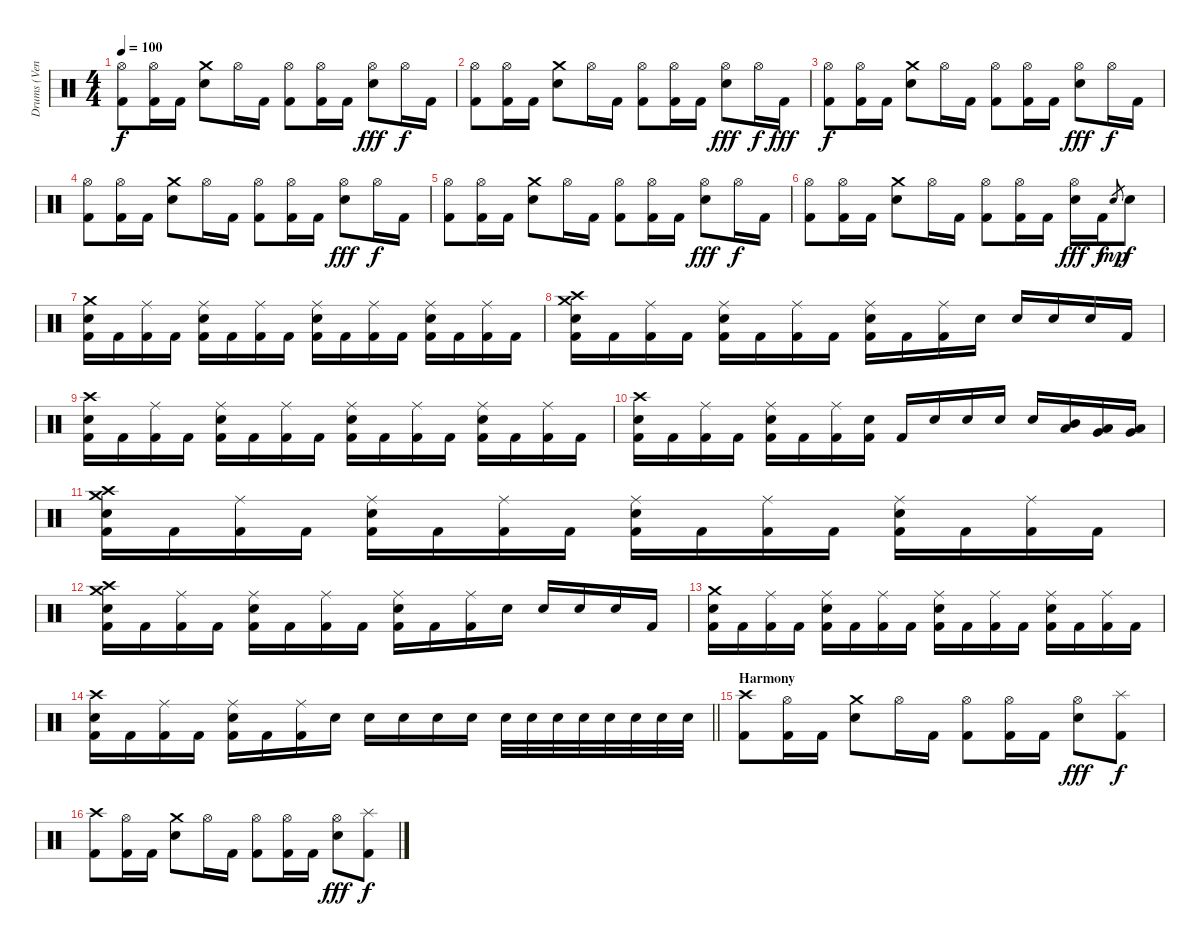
\track ("Drums (Ventor)" "Drums (Ven") {instrument percussion}
\staff {score}
\articulation defaults
\ts (4 4)
\tempo 100
\clef neutral
\ks c
("Hi-Hat (open)" "Kick (hit) 2").8{dy f} ("Hi-Hat (open)" "Kick (hit) 2").16 "Kick (hit) 2".16 ("Electric Snare (hit)" "Crash medium (hit)").8 "Hi-Hat (open)".16 "Kick (hit) 2".16 ("Hi-Hat (open)" "Kick (hit) 2").8 ("Hi-Hat (open)" "Kick (hit) 2").16 "Kick (hit) 2".16 ("Electric Snare (hit)" "Hi-Hat (open)").8{dy fff} "Hi-Hat (open)".16{dy f} "Kick (hit) 2".16 |
("Hi-Hat (open)" "Kick (hit) 2").8 ("Hi-Hat (open)" "Kick (hit) 2").16 "Kick (hit) 2".16 ("Electric Snare (hit)" "Crash medium (hit)").8 "Hi-Hat (open)".16 "Kick (hit) 2".16 ("Hi-Hat (open)" "Kick (hit) 2").8 ("Hi-Hat (open)" "Kick (hit) 2").16 "Kick (hit) 2".16 ("Electric Snare (hit)" "Hi-Hat (open)").8{dy fff} "Hi-Hat (open)".16{dy f} "Kick (hit) 2".16{dy fff} |
("Hi-Hat (open)" "Kick (hit) 2").8{dy f} ("Hi-Hat (open)" "Kick (hit) 2").16 "Kick (hit) 2".16 ("Electric Snare (hit)" "Crash medium (hit)").8 "Hi-Hat (open)".16 "Kick (hit) 2".16 ("Hi-Hat (open)" "Kick (hit) 2").8 ("Hi-Hat (open)" "Kick (hit) 2").16 "Kick (hit) 2".16 ("Electric Snare (hit)" "Hi-Hat (open)").8{dy fff} "Hi-Hat (open)".16{dy f} "Kick (hit) 2".16 |
("Hi-Hat (open)" "Kick (hit) 2").8 ("Hi-Hat (open)" "Kick (hit) 2").16 "Kick (hit) 2".16 ("Electric Snare (hit)" "Crash medium (hit)").8 "Hi-Hat (open)".16 "Kick (hit) 2".16 ("Hi-Hat (open)" "Kick (hit) 2").8 ("Hi-Hat (open)" "Kick (hit) 2").16 "Kick (hit) 2".16 ("Electric Snare (hit)" "Hi-Hat (open)").8{dy fff} "Hi-Hat (open)".16{dy f} "Kick (hit) 2".16 |
("Hi-Hat (open)" "Kick (hit) 2").8 ("Hi-Hat (open)" "Kick (hit) 2").16 "Kick (hit) 2".16 ("Electric Snare (hit)" "Crash medium (hit)").8 "Hi-Hat (open)".16 "Kick (hit) 2".16 ("Hi-Hat (open)" "Kick (hit) 2").8 ("Hi-Hat (open)" "Kick (hit) 2").16 "Kick (hit) 2".16 ("Electric Snare (hit)" "Hi-Hat (open)").8{dy fff} "Hi-Hat (open)".16{dy f} "Kick (hit) 2".16 |
("Hi-Hat (open)" "Kick (hit) 2").8 ("Hi-Hat (open)" "Kick (hit) 2").16 "Kick (hit) 2".16 ("Electric Snare (hit)" "Crash medium (hit)").8 "Hi-Hat (open)".16 "Kick (hit) 2".16 ("Hi-Hat (open)" "Kick (hit) 2").8 ("Hi-Hat (open)" "Kick (hit) 2").16 "Kick (hit) 2".16 ("Electric Snare (hit)" "Hi-Hat (open)").16{dy fff} "Kick (hit) 2".16{dy f} "Electric Snare (hit)".8{gr dy mp} "Electric Snare (hit)".8{dy f} |
("Electric Snare (hit)" "Crash medium (hit)" "Kick (hit) 2").16 "Kick (hit) 2".16 ("Ride (middle)" "Kick (hit) 2").16 "Kick (hit) 2".16 ("Electric Snare (hit)" "Ride (middle)" "Kick (hit) 2").16 "Kick (hit) 2".16 ("Ride (middle)" "Kick (hit) 2").16 "Kick (hit) 2".16 ("Electric Snare (hit)" "Ride (middle)" "Kick (hit) 2").16 "Kick (hit) 2".16 ("Ride (middle)" "Kick (hit) 2").16 "Kick (hit) 2".16 ("Electric Snare (hit)" "Ride (middle)" "Kick (hit) 2").16 "Kick (hit) 2".16 ("Ride (middle)" "Kick (hit) 2").16 "Kick (hit) 2".16 |
("Electric Snare (hit)" "Crash medium (hit)" "Crash high (hit)" "Kick (hit) 2").16 "Kick (hit) 2".16 ("Ride (middle)" "Kick (hit) 2").16 "Kick (hit) 2".16 ("Electric Snare (hit)" "Ride (middle)" "Kick (hit) 2").16 "Kick (hit) 2".16 ("Ride (middle)" "Kick (hit) 2").16 "Kick (hit) 2".16 ("Electric Snare (hit)" "Ride (middle)" "Kick (hit) 2").16 "Kick (hit) 2".16 ("Ride (middle)" "Kick (hit) 2").16 "Electric Snare (hit)".16 "Electric Snare (hit)".16 "Electric Snare (hit)".16 "Electric Snare (hit)".16 "Kick (hit) 2".16 |
("Electric Snare (hit)" "Crash high (hit)" "Kick (hit) 2").16 "Kick (hit) 2".16 ("Ride (middle)" "Kick (hit) 2").16 "Kick (hit) 2".16 ("Electric Snare (hit)" "Ride (middle)" "Kick (hit) 2").16 "Kick (hit) 2".16 ("Ride (middle)" "Kick (hit) 2").16 "Kick (hit) 2".16 ("Electric Snare (hit)" "Ride (middle)" "Kick (hit) 2").16 "Kick (hit) 2".16 ("Ride (middle)" "Kick (hit) 2").16 "Kick (hit) 2".16 ("Electric Snare (hit)" "Ride (middle)" "Kick (hit) 2").16 "Kick (hit) 2".16 ("Ride (middle)" "Kick (hit) 2").16 "Kick (hit) 2".16 |
("Electric Snare (hit)" "Crash high (hit)" "Kick (hit) 2").16 "Kick (hit) 2".16 ("Ride (middle)" "Kick (hit) 2").16 "Kick (hit) 2".16 ("Electric Snare (hit)" "Ride (middle)" "Kick (hit) 2").16 "Kick (hit) 2".16 ("Ride (middle)" "Kick (hit) 2").16 ("Electric Snare (hit)" "Kick (hit) 2").16 "Kick (hit) 2".16 "Electric Snare (hit)".16 "Electric Snare (hit)".16 "Electric Snare (hit)".16 "Electric Snare (hit)".16 ("Low Tom (hit)" "Mid Tom (hit)").16 ("Very Low Tom (hit)" "Low Tom (hit)").16 ("Low Floor Tom (hit)" "Very Low Tom (hit)").16 |
("Electric Snare (hit)" "Crash medium (hit)" "Crash high (hit)" "Kick (hit) 2").16 "Kick (hit) 2".16 ("Ride (middle)" "Kick (hit) 2").16 "Kick (hit) 2".16 ("Electric Snare (hit)" "Ride (middle)" "Kick (hit) 2").16 "Kick (hit) 2".16 ("Ride (middle)" "Kick (hit) 2").16 "Kick (hit) 2".16 ("Electric Snare (hit)" "Ride (middle)" "Kick (hit) 2").16 "Kick (hit) 2".16 ("Ride (middle)" "Kick (hit) 2").16 "Kick (hit) 2".16 ("Electric Snare (hit)" "Ride (middle)" "Kick (hit) 2").16 "Kick (hit) 2".16 ("Ride (middle)" "Kick (hit) 2").16 "Kick (hit) 2".16 |
("Electric Snare (hit)" "Crash medium (hit)" "Crash high (hit)" "Kick (hit) 2").16 "Kick (hit) 2".16 ("Ride (middle)" "Kick (hit) 2").16 "Kick (hit) 2".16 ("Electric Snare (hit)" "Ride (middle)" "Kick (hit) 2").16 "Kick (hit) 2".16 ("Ride (middle)" "Kick (hit) 2").16 "Kick (hit) 2".16 ("Electric Snare (hit)" "Ride (middle)" "Kick (hit) 2").16 "Kick (hit) 2".16 ("Ride (middle)" "Kick (hit) 2").16 "Electric Snare (hit)".16 "Electric Snare (hit)".16 "Electric Snare (hit)".16 "Electric Snare (hit)".16 "Kick (hit) 2".16 |
("Electric Snare (hit)" "Crash medium (hit)" "Kick (hit) 2").16 "Kick (hit) 2".16 ("Ride (middle)" "Kick (hit) 2").16 "Kick (hit) 2".16 ("Electric Snare (hit)" "Ride (middle)" "Kick (hit) 2").16 "Kick (hit) 2".16 ("Ride (middle)" "Kick (hit) 2").16 "Kick (hit) 2".16 ("Electric Snare (hit)" "Ride (middle)" "Kick (hit) 2").16 "Kick (hit) 2".16 ("Ride (middle)" "Kick (hit) 2").16 "Kick (hit) 2".16 ("Electric Snare (hit)" "Ride (middle)" "Kick (hit) 2").16 "Kick (hit) 2".16 ("Ride (middle)" "Kick (hit) 2").16 "Kick (hit) 2".16 |
\barLineRight lightlight
("Electric Snare (hit)" "Crash high (hit)" "Kick (hit) 2").16 "Kick (hit) 2".16 ("Ride (middle)" "Kick (hit) 2").16 "Kick (hit) 2".16 ("Electric Snare (hit)" "Ride (middle)" "Kick (hit) 2").16 "Kick (hit) 2".16 ("Ride (middle)" "Kick (hit) 2").16 "Electric Snare (hit)".16 "Electric Snare (hit)".16 "Electric Snare (hit)".16 "Electric Snare (hit)".16 "Electric Snare (hit)".16 "Electric Snare (hit)".32 "Electric Snare (hit)".32 "Electric Snare (hit)".32 "Electric Snare (hit)".32 "Electric Snare (hit)".32 "Electric Snare (hit)".32 "Electric Snare (hit)".32 "Electric Snare (hit)".32 |
\section ("" "Harmony")
("Crash high (hit)" "Kick (hit) 2").8 ("Hi-Hat (open)" "Kick (hit) 2").16 "Kick (hit) 2".16 ("Electric Snare (hit)" "Crash medium (hit)").8 "Hi-Hat (open)".16 "Kick (hit) 2".16 ("Hi-Hat (open)" "Kick (hit) 2").8 ("Hi-Hat (open)" "Kick (hit) 2").16 "Kick (hit) 2".16 ("Electric Snare (hit)" "Hi-Hat (open)").8{dy fff} ("Splash (hit)" "Kick (hit) 2").8{dy f} |
("Crash high (hit)" "Kick (hit) 2").8 ("Hi-Hat (open)" "Kick (hit) 2").16 "Kick (hit) 2".16 ("Electric Snare (hit)" "Crash medium (hit)").8 "Hi-Hat (open)".16 "Kick (hit) 2".16 ("Hi-Hat (open)" "Kick (hit) 2").8 ("Hi-Hat (open)" "Kick (hit) 2").16 "Kick (hit) 2".16 ("Electric Snare (hit)" "Hi-Hat (open)").8{dy fff} ("Splash (hit)" "Kick (hit) 2").8{dy f}
